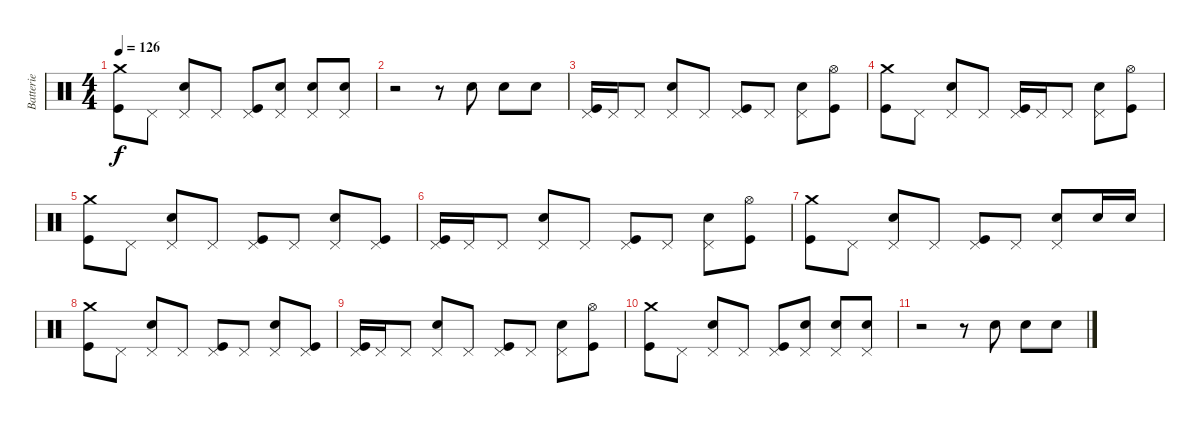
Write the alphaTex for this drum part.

\track ("Batterie" "Batterie") {instrument percussion}
\staff {score}
\articulation defaults
\ts (4 4)
\tempo 126
\clef neutral
\ks c
("Crash medium (hit)" "Kick (hit)").8{dy f} "Pedal Hi-Hat (hit)".8 ("Pedal Hi-Hat (hit)" "Snare (hit) 2").8 "Pedal Hi-Hat (hit)".8 ("Pedal Hi-Hat (hit)" "Kick (hit)").8 ("Pedal Hi-Hat (hit)" "Snare (hit) 2").8 ("Pedal Hi-Hat (hit)" "Snare (hit) 2").8 ("Pedal Hi-Hat (hit)" "Snare (hit) 2").8 |
r.2 r.8 "Snare (hit) 2".8 "Snare (hit) 2".8 "Snare (hit) 2".8 |
("Pedal Hi-Hat (hit)" "Kick (hit)").16 "Pedal Hi-Hat (hit)".16 "Pedal Hi-Hat (hit)".8 ("Pedal Hi-Hat (hit)" "Snare (hit) 2").8 "Pedal Hi-Hat (hit)".8 ("Pedal Hi-Hat (hit)" "Kick (hit)").8 "Pedal Hi-Hat (hit)".8 ("Pedal Hi-Hat (hit)" "Snare (hit) 2").8 ("Hi-Hat (open)" "Kick (hit)").8 |
("Crash medium (hit)" "Kick (hit)").8 "Pedal Hi-Hat (hit)".8 ("Pedal Hi-Hat (hit)" "Snare (hit) 2").8 "Pedal Hi-Hat (hit)".8 ("Pedal Hi-Hat (hit)" "Kick (hit)").16 "Pedal Hi-Hat (hit)".16 "Pedal Hi-Hat (hit)".8 ("Pedal Hi-Hat (hit)" "Snare (hit) 2").8 ("Hi-Hat (open)" "Kick (hit)").8 |
("Crash medium (hit)" "Kick (hit)").8 "Pedal Hi-Hat (hit)".8 ("Pedal Hi-Hat (hit)" "Snare (hit) 2").8 "Pedal Hi-Hat (hit)".8 ("Pedal Hi-Hat (hit)" "Kick (hit)").8 "Pedal Hi-Hat (hit)".8 ("Pedal Hi-Hat (hit)" "Snare (hit) 2").8 ("Pedal Hi-Hat (hit)" "Kick (hit)").8 |
("Pedal Hi-Hat (hit)" "Kick (hit)").16 "Pedal Hi-Hat (hit)".16 "Pedal Hi-Hat (hit)".8 ("Pedal Hi-Hat (hit)" "Snare (hit) 2").8 "Pedal Hi-Hat (hit)".8 ("Pedal Hi-Hat (hit)" "Kick (hit)").8 "Pedal Hi-Hat (hit)".8 ("Pedal Hi-Hat (hit)" "Snare (hit) 2").8 ("Hi-Hat (open)" "Kick (hit)").8 |
("Crash medium (hit)" "Kick (hit)").8 "Pedal Hi-Hat (hit)".8 ("Pedal Hi-Hat (hit)" "Snare (hit) 2").8 "Pedal Hi-Hat (hit)".8 ("Pedal Hi-Hat (hit)" "Kick (hit)").8 "Pedal Hi-Hat (hit)".8 ("Pedal Hi-Hat (hit)" "Snare (hit) 2").8 "Snare (hit) 2".16 "Snare (hit) 2".16 |
("Crash medium (hit)" "Kick (hit)").8 "Pedal Hi-Hat (hit)".8 ("Pedal Hi-Hat (hit)" "Snare (hit) 2").8 "Pedal Hi-Hat (hit)".8 ("Pedal Hi-Hat (hit)" "Kick (hit)").8 "Pedal Hi-Hat (hit)".8 ("Pedal Hi-Hat (hit)" "Snare (hit) 2").8 ("Pedal Hi-Hat (hit)" "Kick (hit)").8 |
("Pedal Hi-Hat (hit)" "Kick (hit)").16 "Pedal Hi-Hat (hit)".16 "Pedal Hi-Hat (hit)".8 ("Pedal Hi-Hat (hit)" "Snare (hit) 2").8 "Pedal Hi-Hat (hit)".8 ("Pedal Hi-Hat (hit)" "Kick (hit)").8 "Pedal Hi-Hat (hit)".8 ("Pedal Hi-Hat (hit)" "Snare (hit) 2").8 ("Hi-Hat (open)" "Kick (hit)").8 |
("Crash medium (hit)" "Kick (hit)").8 "Pedal Hi-Hat (hit)".8 ("Pedal Hi-Hat (hit)" "Snare (hit) 2").8 "Pedal Hi-Hat (hit)".8 ("Pedal Hi-Hat (hit)" "Kick (hit)").8 ("Pedal Hi-Hat (hit)" "Snare (hit) 2").8 ("Pedal Hi-Hat (hit)" "Snare (hit) 2").8 ("Pedal Hi-Hat (hit)" "Snare (hit) 2").8 |
r.2 r.8 "Snare (hit) 2".8 "Snare (hit) 2".8 "Snare (hit) 2".8
